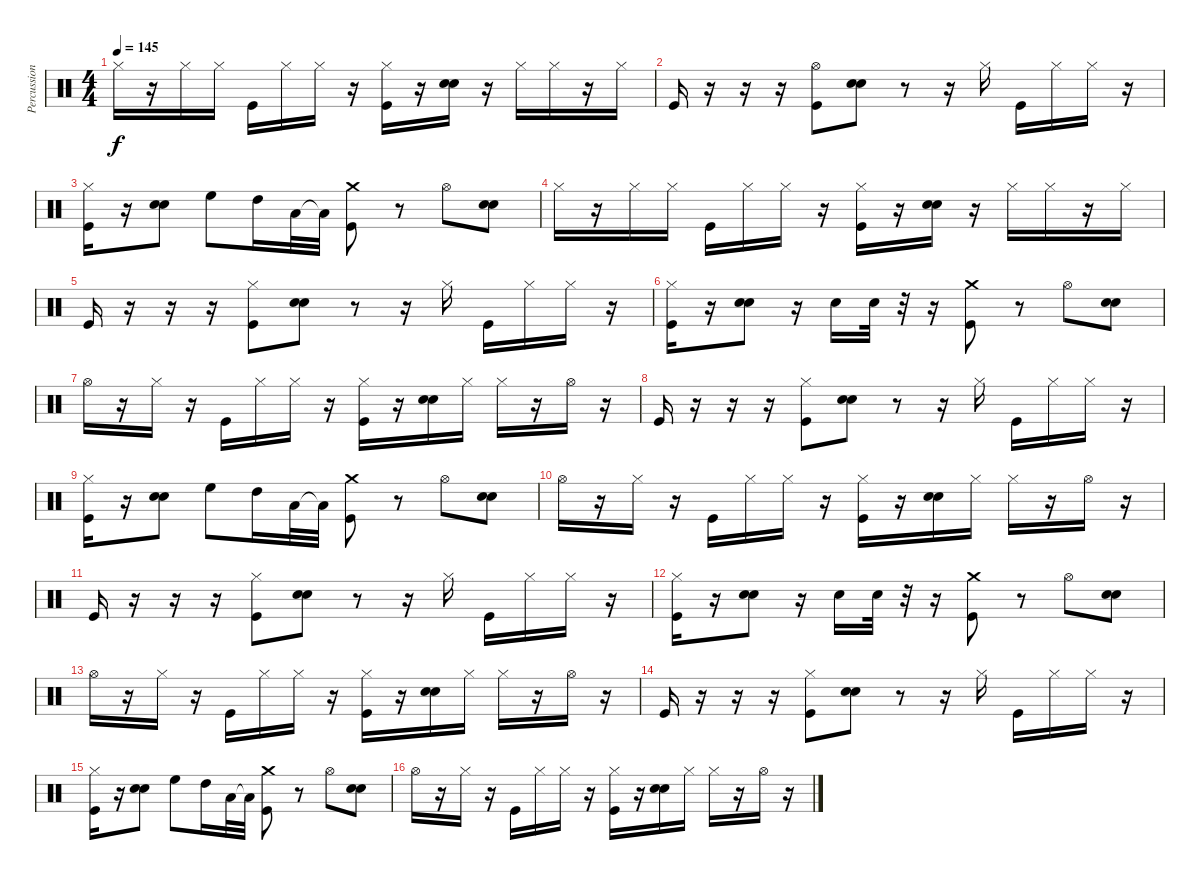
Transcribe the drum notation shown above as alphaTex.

\track ("Percussions" "Percussion") {instrument percussion}
\staff {score}
\articulation defaults
\ts (4 4)
\tempo 145
\clef neutral
\ks c "Hi-Hat (closed)".16{dy f}
r.16 "Hi-Hat (closed)".16 "Hi-Hat (closed)".16 "Kick (hit)".16 "Hi-Hat (closed)".16 "Hi-Hat (closed)".16 r.16 ("Hi-Hat (closed)" "Kick (hit)").16 r.16 ("Electric Snare (hit)" "Electric Snare (hit)").16 r.16 "Hi-Hat (closed)".16 "Hi-Hat (closed)".16 r.16 "Hi-Hat (closed)".16 |
"Kick (hit)".16 r.16 r.16 r.16 ("Hi-Hat (open)" "Kick (hit)").8 ("Electric Snare (hit)" "Electric Snare (hit)").8 r.8 r.16 "Hi-Hat (closed)".16 "Kick (hit)".16 "Hi-Hat (closed)".16 "Hi-Hat (closed)".16 r.16 |
("Hi-Hat (closed)" "Kick (hit)").16 r.16 ("Electric Snare (hit)" "Electric Snare (hit)").8 "High Floor Tom (hit)".8{volume 11} "High Tom (hit)".16 "Low Tom (hit)".32 "Low Tom (hit)"{t}.32 ("Crash medium (hit)" "Kick (hit)").8{volume 16} r.8 "Hi-Hat (open)".8 ("Electric Snare (hit)" "Electric Snare (hit)").8 |
"Hi-Hat (closed)".16 r.16 "Hi-Hat (closed)".16 "Hi-Hat (closed)".16 "Kick (hit)".16 "Hi-Hat (closed)".16 "Hi-Hat (closed)".16 r.16 ("Hi-Hat (closed)" "Kick (hit)").16 r.16 ("Electric Snare (hit)" "Electric Snare (hit)").16 r.16 "Hi-Hat (closed)".16 "Hi-Hat (closed)".16 r.16 "Hi-Hat (closed)".16 |
"Kick (hit)".16 r.16 r.16 r.16 ("Hi-Hat (closed)" "Kick (hit)").8 ("Electric Snare (hit)" "Electric Snare (hit)").8 r.8 r.16 "Hi-Hat (closed)".16 "Kick (hit)".16 "Hi-Hat (closed)".16 "Hi-Hat (closed)".16 r.16 |
("Hi-Hat (closed)" "Kick (hit)").16 r.16 ("Electric Snare (hit)" "Electric Snare (hit)").8 r.16{volume 12} "Electric Snare (hit)".16 "Electric Snare (hit)".32 r.32 r.16 ("Crash medium (hit)" "Kick (hit)").8{volume 16} r.8 "Hi-Hat (open)".8 ("Electric Snare (hit)" "Electric Snare (hit)").8 |
"Hi-Hat (open)".16 r.16 "Hi-Hat (closed)".16 r.16 "Kick (hit)".16 "Hi-Hat (closed)".16 "Hi-Hat (closed)".16 r.16 ("Hi-Hat (closed)" "Kick (hit)").16 r.16 ("Electric Snare (hit)" "Electric Snare (hit)").16 "Hi-Hat (closed)".16 "Hi-Hat (closed)".16 r.16 "Hi-Hat (open)".16 r.16 |
"Kick (hit)".16 r.16 r.16 r.16 ("Hi-Hat (closed)" "Kick (hit)").8 ("Electric Snare (hit)" "Electric Snare (hit)").8 r.8 r.16 "Hi-Hat (closed)".16 "Kick (hit)".16 "Hi-Hat (closed)".16 "Hi-Hat (closed)".16 r.16 |
("Hi-Hat (closed)" "Kick (hit)").16 r.16 ("Electric Snare (hit)" "Electric Snare (hit)").8 "High Floor Tom (hit)".8{volume 11} "High Tom (hit)".16 "Low Tom (hit)".32 "Low Tom (hit)"{t}.32 ("Crash medium (hit)" "Kick (hit)").8{volume 16} r.8 "Hi-Hat (open)".8 ("Electric Snare (hit)" "Electric Snare (hit)").8 |
"Hi-Hat (open)".16 r.16 "Hi-Hat (closed)".16 r.16 "Kick (hit)".16 "Hi-Hat (closed)".16 "Hi-Hat (closed)".16 r.16 ("Hi-Hat (closed)" "Kick (hit)").16 r.16 ("Electric Snare (hit)" "Electric Snare (hit)").16 "Hi-Hat (closed)".16 "Hi-Hat (closed)".16 r.16 "Hi-Hat (open)".16 r.16 |
"Kick (hit)".16 r.16 r.16 r.16 ("Hi-Hat (closed)" "Kick (hit)").8 ("Electric Snare (hit)" "Electric Snare (hit)").8 r.8 r.16 "Hi-Hat (closed)".16 "Kick (hit)".16 "Hi-Hat (closed)".16 "Hi-Hat (closed)".16 r.16 |
("Hi-Hat (closed)" "Kick (hit)").16 r.16 ("Electric Snare (hit)" "Electric Snare (hit)").8 r.16{volume 12} "Electric Snare (hit)".16 "Electric Snare (hit)".32 r.32 r.16 ("Crash medium (hit)" "Kick (hit)").8{volume 16} r.8 "Hi-Hat (open)".8 ("Electric Snare (hit)" "Electric Snare (hit)").8 |
"Hi-Hat (open)".16 r.16 "Hi-Hat (closed)".16 r.16 "Kick (hit)".16 "Hi-Hat (closed)".16 "Hi-Hat (closed)".16 r.16 ("Hi-Hat (closed)" "Kick (hit)").16 r.16 ("Electric Snare (hit)" "Electric Snare (hit)").16 "Hi-Hat (closed)".16 "Hi-Hat (closed)".16 r.16 "Hi-Hat (open)".16 r.16 |
"Kick (hit)".16 r.16 r.16 r.16 ("Hi-Hat (closed)" "Kick (hit)").8 ("Electric Snare (hit)" "Electric Snare (hit)").8 r.8 r.16 "Hi-Hat (closed)".16 "Kick (hit)".16 "Hi-Hat (closed)".16 "Hi-Hat (closed)".16 r.16 |
("Hi-Hat (closed)" "Kick (hit)").16 r.16 ("Electric Snare (hit)" "Electric Snare (hit)").8 "High Floor Tom (hit)".8{volume 11} "High Tom (hit)".16 "Low Tom (hit)".32 "Low Tom (hit)"{t}.32 ("Crash medium (hit)" "Kick (hit)").8{volume 16} r.8 "Hi-Hat (open)".8 ("Electric Snare (hit)" "Electric Snare (hit)").8 |
"Hi-Hat (open)".16 r.16 "Hi-Hat (closed)".16 r.16 "Kick (hit)".16 "Hi-Hat (closed)".16 "Hi-Hat (closed)".16 r.16 ("Hi-Hat (closed)" "Kick (hit)").16 r.16 ("Electric Snare (hit)" "Electric Snare (hit)").16 "Hi-Hat (closed)".16 "Hi-Hat (closed)".16 r.16 "Hi-Hat (open)".16 r.16
